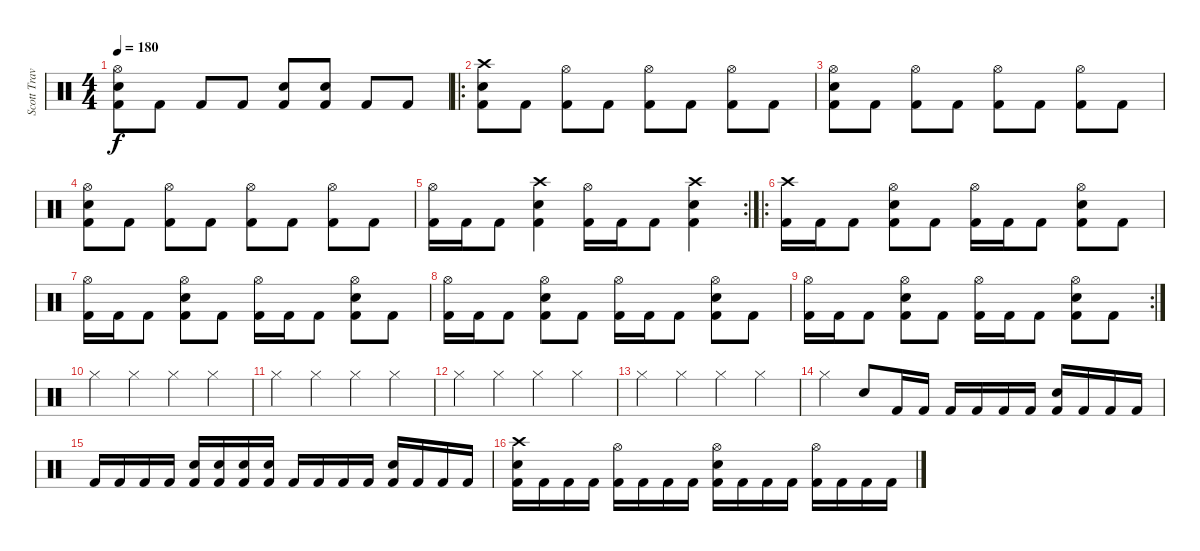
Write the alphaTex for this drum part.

\track ("Scott Travis" "Scott Trav") {instrument percussion}
\staff {score}
\articulation defaults
\ts (4 4)
\tempo 180
\clef neutral
\ks c
("Hi-Hat (open)" "Snare (hit) 2" "Kick (hit) 2").8{dy f} "Kick (hit) 2".8 "Kick (hit) 2".8 "Kick (hit) 2".8 ("Snare (hit) 2" "Kick (hit) 2").8 ("Snare (hit) 2" "Kick (hit) 2").8 "Kick (hit) 2".8 "Kick (hit) 2".8 |
\ro
("Crash high (hit)" "Snare (hit) 2" "Kick (hit) 2").8 "Kick (hit) 2".8 ("Hi-Hat (open)" "Kick (hit) 2").8 "Kick (hit) 2".8 ("Hi-Hat (open)" "Kick (hit) 2").8 "Kick (hit) 2".8 ("Hi-Hat (open)" "Kick (hit) 2").8 "Kick (hit) 2".8 |
("Hi-Hat (open)" "Snare (hit) 2" "Kick (hit) 2").8 "Kick (hit) 2".8 ("Hi-Hat (open)" "Kick (hit) 2").8 "Kick (hit) 2".8 ("Hi-Hat (open)" "Kick (hit) 2").8 "Kick (hit) 2".8 ("Hi-Hat (open)" "Kick (hit) 2").8 "Kick (hit) 2".8 |
("Hi-Hat (open)" "Snare (hit) 2" "Kick (hit) 2").8 "Kick (hit) 2".8 ("Hi-Hat (open)" "Kick (hit) 2").8 "Kick (hit) 2".8 ("Hi-Hat (open)" "Kick (hit) 2").8 "Kick (hit) 2".8 ("Hi-Hat (open)" "Kick (hit) 2").8 "Kick (hit) 2".8 |
\rc 2
("Hi-Hat (open)" "Kick (hit) 2").16 "Kick (hit) 2".16 "Kick (hit) 2".8 ("Crash high (hit)" "Snare (hit) 2" "Kick (hit) 2").4 ("Hi-Hat (open)" "Kick (hit) 2").16 "Kick (hit) 2".16 "Kick (hit) 2".8 ("Crash high (hit)" "Snare (hit) 2" "Kick (hit) 2").4 |
\ro
("Crash high (hit)" "Kick (hit) 2").16 "Kick (hit) 2".16 "Kick (hit) 2".8 ("Hi-Hat (open)" "Snare (hit) 2" "Kick (hit) 2").8 "Kick (hit) 2".8 ("Hi-Hat (open)" "Kick (hit) 2").16 "Kick (hit) 2".16 "Kick (hit) 2".8 ("Hi-Hat (open)" "Snare (hit) 2" "Kick (hit) 2").8 "Kick (hit) 2".8 |
("Hi-Hat (open)" "Kick (hit) 2").16 "Kick (hit) 2".16 "Kick (hit) 2".8 ("Hi-Hat (open)" "Snare (hit) 2" "Kick (hit) 2").8 "Kick (hit) 2".8 ("Hi-Hat (open)" "Kick (hit) 2").16 "Kick (hit) 2".16 "Kick (hit) 2".8 ("Hi-Hat (open)" "Snare (hit) 2" "Kick (hit) 2").8 "Kick (hit) 2".8 |
("Hi-Hat (open)" "Kick (hit) 2").16 "Kick (hit) 2".16 "Kick (hit) 2".8 ("Hi-Hat (open)" "Snare (hit) 2" "Kick (hit) 2").8 "Kick (hit) 2".8 ("Hi-Hat (open)" "Kick (hit) 2").16 "Kick (hit) 2".16 "Kick (hit) 2".8 ("Hi-Hat (open)" "Snare (hit) 2" "Kick (hit) 2").8 "Kick (hit) 2".8 |
\rc 2
("Hi-Hat (open)" "Kick (hit) 2").16 "Kick (hit) 2".16 "Kick (hit) 2".8 ("Hi-Hat (open)" "Snare (hit) 2" "Kick (hit) 2").8 "Kick (hit) 2".8 ("Hi-Hat (open)" "Kick (hit) 2").16 "Kick (hit) 2".16 "Kick (hit) 2".8 ("Hi-Hat (open)" "Snare (hit) 2" "Kick (hit) 2").8 "Kick (hit) 2".8 |
"Hi-Hat (closed)".4 "Hi-Hat (closed)".4 "Hi-Hat (closed)".4 "Hi-Hat (closed)".4 |
"Hi-Hat (closed)".4 "Hi-Hat (closed)".4 "Hi-Hat (closed)".4 "Hi-Hat (closed)".4 |
"Hi-Hat (closed)".4 "Hi-Hat (closed)".4 "Hi-Hat (closed)".4 "Hi-Hat (closed)".4 |
"Hi-Hat (closed)".4 "Hi-Hat (closed)".4 "Hi-Hat (closed)".4 "Hi-Hat (closed)".4 |
"Hi-Hat (closed)".4 "Snare (hit) 2".8 "Kick (hit) 2".16 "Kick (hit) 2".16 "Kick (hit) 2".16 "Kick (hit) 2".16 "Kick (hit) 2".16 "Kick (hit) 2".16 ("Snare (hit) 2" "Kick (hit) 2").16 "Kick (hit) 2".16 "Kick (hit) 2".16 "Kick (hit) 2".16 |
"Kick (hit) 2".16 "Kick (hit) 2".16 "Kick (hit) 2".16 "Kick (hit) 2".16 ("Snare (hit) 2" "Kick (hit) 2").16 ("Snare (hit) 2" "Kick (hit) 2").16 ("Snare (hit) 2" "Kick (hit) 2").16 ("Snare (hit) 2" "Kick (hit) 2").16 "Kick (hit) 2".16 "Kick (hit) 2".16 "Kick (hit) 2".16 "Kick (hit) 2".16 ("Snare (hit) 2" "Kick (hit) 2").16 "Kick (hit) 2".16 "Kick (hit) 2".16 "Kick (hit) 2".16 |
("Crash high (hit)" "Snare (hit) 2" "Kick (hit) 2").16 "Kick (hit) 2".16 "Kick (hit) 2".16 "Kick (hit) 2".16 ("Hi-Hat (open)" "Kick (hit) 2").16 "Kick (hit) 2".16 "Kick (hit) 2".16 "Kick (hit) 2".16 ("Hi-Hat (open)" "Snare (hit) 2" "Kick (hit) 2").16 "Kick (hit) 2".16 "Kick (hit) 2".16 "Kick (hit) 2".16 ("Hi-Hat (open)" "Kick (hit) 2").16 "Kick (hit) 2".16 "Kick (hit) 2".16 "Kick (hit) 2".16
